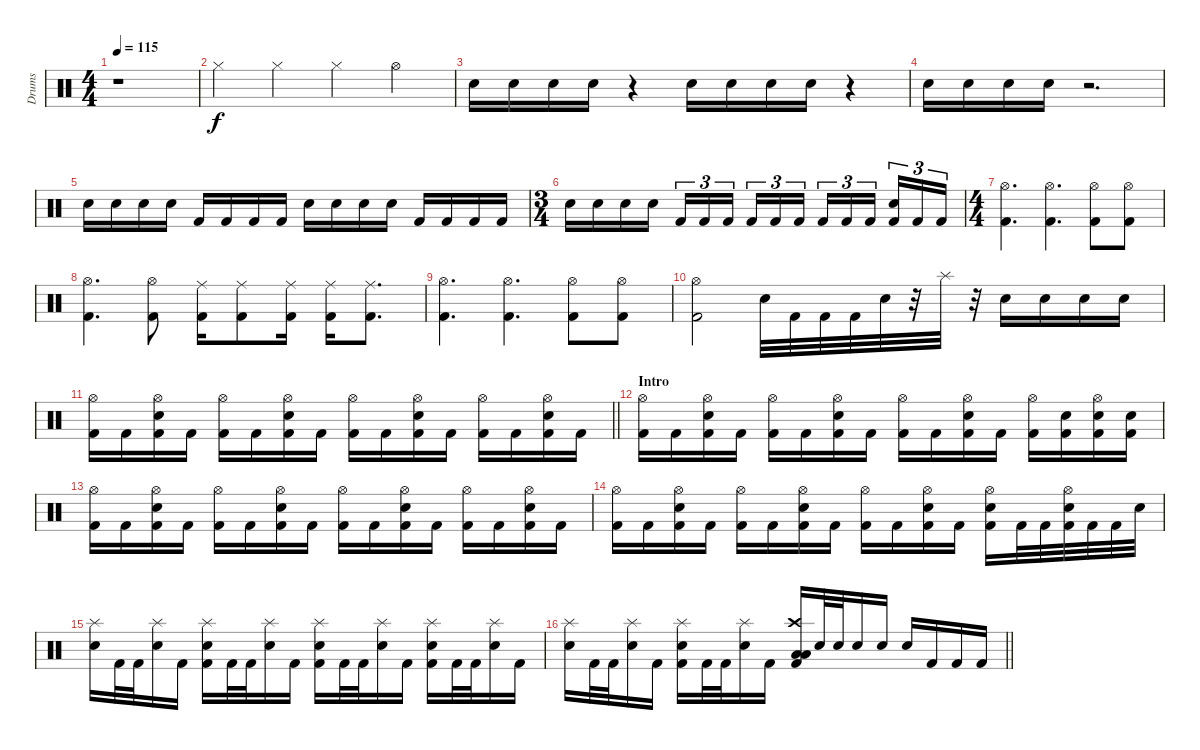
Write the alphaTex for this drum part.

\track ("Drums" "Drums") {instrument percussion}
\staff {score}
\articulation defaults
\ts (4 4)
\tempo 115
\clef neutral
\ks c
r.1{dy f} |
"Hi-Hat (closed)".4 "Hi-Hat (closed)".4 "Hi-Hat (closed)".4 "Hi-Hat (open)".4 |
"Electric Snare (hit)".16 "Electric Snare (hit)".16 "Electric Snare (hit)".16 "Electric Snare (hit)".16 r.4 "Electric Snare (hit)".16 "Electric Snare (hit)".16 "Electric Snare (hit)".16 "Electric Snare (hit)".16 r.4 |
"Electric Snare (hit)".16 "Electric Snare (hit)".16 "Electric Snare (hit)".16 "Electric Snare (hit)".16 r.2{d} |
"Electric Snare (hit)".16 "Electric Snare (hit)".16 "Electric Snare (hit)".16 "Electric Snare (hit)".16 "Kick (hit) 2".16 "Kick (hit) 2".16 "Kick (hit) 2".16 "Kick (hit) 2".16 "Electric Snare (hit)".16 "Electric Snare (hit)".16 "Electric Snare (hit)".16 "Electric Snare (hit)".16 "Kick (hit) 2".16 "Kick (hit) 2".16 "Kick (hit) 2".16 "Kick (hit) 2".16 |
\ts (3 4)
"Electric Snare (hit)".16 "Electric Snare (hit)".16 "Electric Snare (hit)".16 "Electric Snare (hit)".16 "Kick (hit) 2".16{tu (3 2)} "Kick (hit) 2".16{tu (3 2)} "Kick (hit) 2".16{tu (3 2) beam splitsecondary} "Kick (hit) 2".16{tu (3 2)} "Kick (hit) 2".16{tu (3 2)} "Kick (hit) 2".16{tu (3 2)} "Kick (hit) 2".16{tu (3 2)} "Kick (hit) 2".16{tu (3 2)} "Kick (hit) 2".16{tu (3 2) beam splitsecondary} ("Electric Snare (hit)" "Kick (hit) 2").16{tu (3 2)} "Kick (hit) 2".16{tu (3 2)} "Kick (hit) 2".16{tu (3 2)} |
\ts (4 4)
("Hi-Hat (open)" "Kick (hit) 2").4{d} ("Hi-Hat (open)" "Kick (hit) 2").4{d} ("Hi-Hat (open)" "Kick (hit) 2").8 ("Hi-Hat (open)" "Kick (hit) 2").8 |
("Hi-Hat (open)" "Kick (hit) 2").4{d} ("Hi-Hat (open)" "Kick (hit) 2").8 ("Ride (middle)" "Kick (hit) 2").16 ("Ride (middle)" "Kick (hit) 2").8 ("Ride (middle)" "Kick (hit) 2").16 ("Ride (middle)" "Kick (hit) 2").16 ("Ride (middle)" "Kick (hit) 2").8{d} |
("Hi-Hat (open)" "Kick (hit) 2").4{d} ("Hi-Hat (open)" "Kick (hit) 2").4{d} ("Hi-Hat (open)" "Kick (hit) 2").8 ("Hi-Hat (open)" "Kick (hit) 2").8 |
("Hi-Hat (open)" "Kick (hit) 2").2 "Electric Snare (hit)".32 "Kick (hit) 2".32 "Kick (hit) 2".32 "Kick (hit) 2".32 "Electric Snare (hit)".32 r.32 "Splash (hit)".32 r.32 "Electric Snare (hit)".16 "Electric Snare (hit)".16 "Electric Snare (hit)".16 "Electric Snare (hit)".16 |
\barLineRight lightlight
("Hi-Hat (open)" "Kick (hit) 2").16 "Kick (hit) 2".16 ("Hi-Hat (open)" "Electric Snare (hit)" "Kick (hit) 2").16 "Kick (hit) 2".16 ("Hi-Hat (open)" "Kick (hit) 2").16 "Kick (hit) 2".16 ("Hi-Hat (open)" "Electric Snare (hit)" "Kick (hit) 2").16 "Kick (hit) 2".16 ("Hi-Hat (open)" "Kick (hit) 2").16 "Kick (hit) 2".16 ("Hi-Hat (open)" "Electric Snare (hit)" "Kick (hit) 2").16 "Kick (hit) 2".16 ("Hi-Hat (open)" "Kick (hit) 2").16 "Kick (hit) 2".16 ("Hi-Hat (open)" "Electric Snare (hit)" "Kick (hit) 2").16 "Kick (hit) 2".16 |
\section ("" "Intro")
("Hi-Hat (open)" "Kick (hit) 2").16 "Kick (hit) 2".16 ("Hi-Hat (open)" "Electric Snare (hit)" "Kick (hit) 2").16 "Kick (hit) 2".16 ("Hi-Hat (open)" "Kick (hit) 2").16 "Kick (hit) 2".16 ("Hi-Hat (open)" "Electric Snare (hit)" "Kick (hit) 2").16 "Kick (hit) 2".16 ("Hi-Hat (open)" "Kick (hit) 2").16 "Kick (hit) 2".16 ("Hi-Hat (open)" "Electric Snare (hit)" "Kick (hit) 2").16 "Kick (hit) 2".16 ("Hi-Hat (open)" "Kick (hit) 2").16 ("Electric Snare (hit)" "Kick (hit) 2").16 ("Hi-Hat (open)" "Electric Snare (hit)" "Kick (hit) 2").16 ("Electric Snare (hit)" "Kick (hit) 2").16 |
("Hi-Hat (open)" "Kick (hit) 2").16 "Kick (hit) 2".16 ("Hi-Hat (open)" "Electric Snare (hit)" "Kick (hit) 2").16 "Kick (hit) 2".16 ("Hi-Hat (open)" "Kick (hit) 2").16 "Kick (hit) 2".16 ("Hi-Hat (open)" "Electric Snare (hit)" "Kick (hit) 2").16 "Kick (hit) 2".16 ("Hi-Hat (open)" "Kick (hit) 2").16 "Kick (hit) 2".16 ("Hi-Hat (open)" "Electric Snare (hit)" "Kick (hit) 2").16 "Kick (hit) 2".16 ("Hi-Hat (open)" "Kick (hit) 2").16 "Kick (hit) 2".16 ("Hi-Hat (open)" "Electric Snare (hit)" "Kick (hit) 2").16 "Kick (hit) 2".16 |
("Hi-Hat (open)" "Kick (hit) 2").16 "Kick (hit) 2".16 ("Hi-Hat (open)" "Electric Snare (hit)" "Kick (hit) 2").16 "Kick (hit) 2".16 ("Hi-Hat (open)" "Kick (hit) 2").16 "Kick (hit) 2".16 ("Hi-Hat (open)" "Electric Snare (hit)" "Kick (hit) 2").16 "Kick (hit) 2".16 ("Hi-Hat (open)" "Kick (hit) 2").16 "Kick (hit) 2".16 ("Hi-Hat (open)" "Electric Snare (hit)" "Kick (hit) 2").16 "Kick (hit) 2".16 ("Hi-Hat (open)" "Electric Snare (hit)" "Kick (hit) 2").16 "Kick (hit) 2".32 "Kick (hit) 2".32 ("Hi-Hat (open)" "Electric Snare (hit)" "Kick (hit) 2").32 "Kick (hit) 2".32 "Kick (hit) 2".32 "Electric Snare (hit)".32 |
("Splash (hit)" "Electric Snare (hit)").16 "Kick (hit) 2".32 "Kick (hit) 2".32 ("Splash (hit)" "Electric Snare (hit)").16 "Kick (hit) 2".16 ("Splash (hit)" "Electric Snare (hit)" "Kick (hit) 2").16 "Kick (hit) 2".32 "Kick (hit) 2".32 ("Splash (hit)" "Electric Snare (hit)").16 "Kick (hit) 2".16 ("Splash (hit)" "Electric Snare (hit)" "Kick (hit) 2").16 "Kick (hit) 2".32 "Kick (hit) 2".32 ("Splash (hit)" "Electric Snare (hit)").16 "Kick (hit) 2".16 ("Splash (hit)" "Electric Snare (hit)" "Kick (hit) 2").16 "Kick (hit) 2".32 "Kick (hit) 2".32 ("Splash (hit)" "Electric Snare (hit)").16 "Kick (hit) 2".16 |
\barLineRight lightlight
("Splash (hit)" "Electric Snare (hit)").16 "Kick (hit) 2".32 "Kick (hit) 2".32 ("Splash (hit)" "Electric Snare (hit)").16 "Kick (hit) 2".16 ("Splash (hit)" "Electric Snare (hit)" "Kick (hit) 2").16 "Kick (hit) 2".32 "Kick (hit) 2".32 ("Splash (hit)" "Electric Snare (hit)").16 "Kick (hit) 2".16 ("Crash high (hit)" "Low Tom (hit)" "Low Tom (hit)" "Kick (hit) 2").16 "Electric Snare (hit)".32 "Electric Snare (hit)".32 "Electric Snare (hit)".16 "Electric Snare (hit)".16 "Electric Snare (hit)".16 "Kick (hit) 2".16 "Kick (hit) 2".16 "Kick (hit) 2".16
